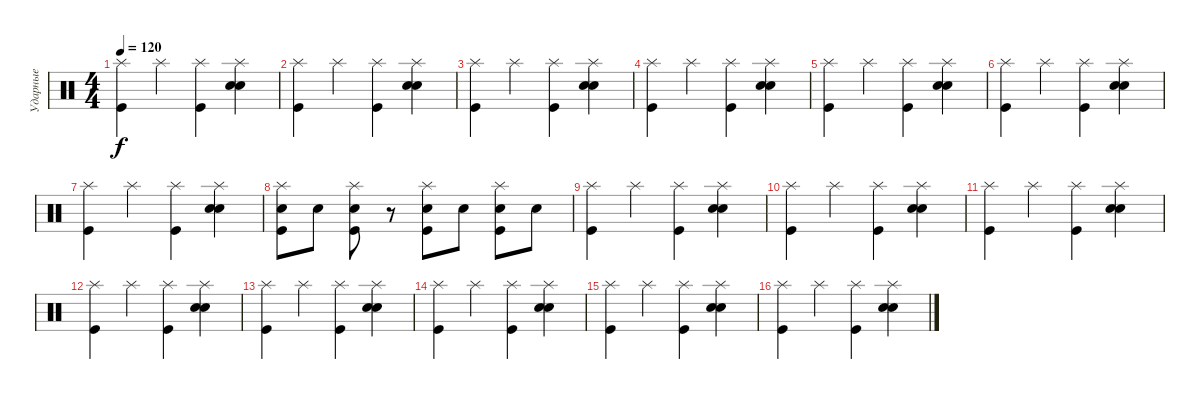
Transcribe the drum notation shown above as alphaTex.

\track ("Ударные" "Ударные") {instrument percussion}
\staff {score}
\articulation defaults
\ts (4 4)
\tempo 120
\clef neutral
\ks c
("Splash (hit)" "Kick (hit)").4{dy f} "Splash (hit)".4 ("Splash (hit)" "Kick (hit)").4 ("Splash (hit)" "Snare (hit) 2" "Snare (hit) 2").4 |
("Splash (hit)" "Kick (hit)").4 "Splash (hit)".4 ("Splash (hit)" "Kick (hit)").4 ("Splash (hit)" "Snare (hit) 2" "Snare (hit) 2").4 |
("Splash (hit)" "Kick (hit)").4 "Splash (hit)".4 ("Splash (hit)" "Kick (hit)").4 ("Splash (hit)" "Snare (hit) 2" "Snare (hit) 2").4 |
("Splash (hit)" "Kick (hit)").4 "Splash (hit)".4 ("Splash (hit)" "Kick (hit)").4 ("Splash (hit)" "Snare (hit) 2" "Snare (hit) 2").4 |
("Splash (hit)" "Kick (hit)").4 "Splash (hit)".4 ("Splash (hit)" "Kick (hit)").4 ("Splash (hit)" "Snare (hit) 2" "Snare (hit) 2").4 |
("Splash (hit)" "Kick (hit)").4 "Splash (hit)".4 ("Splash (hit)" "Kick (hit)").4 ("Splash (hit)" "Snare (hit) 2" "Snare (hit) 2").4 |
("Splash (hit)" "Kick (hit)").4 "Splash (hit)".4 ("Splash (hit)" "Kick (hit)").4 ("Splash (hit)" "Snare (hit) 2" "Snare (hit) 2").4 |
("Splash (hit)" "Snare (hit) 2" "Kick (hit)").8 "Snare (hit) 2".8 ("Splash (hit)" "Snare (hit) 2" "Kick (hit)").8 r.8 ("Splash (hit)" "Snare (hit) 2" "Kick (hit)").8 "Snare (hit) 2".8 ("Splash (hit)" "Snare (hit) 2" "Kick (hit)").8 "Electric Snare (hit)".8 |
("Splash (hit)" "Kick (hit)").4 "Splash (hit)".4 ("Splash (hit)" "Kick (hit)").4 ("Splash (hit)" "Snare (hit) 2" "Snare (hit) 2").4 |
("Splash (hit)" "Kick (hit)").4 "Splash (hit)".4 ("Splash (hit)" "Kick (hit)").4 ("Splash (hit)" "Snare (hit) 2" "Snare (hit) 2").4 |
("Splash (hit)" "Kick (hit)").4 "Splash (hit)".4 ("Splash (hit)" "Kick (hit)").4 ("Splash (hit)" "Snare (hit) 2" "Snare (hit) 2").4 |
("Splash (hit)" "Kick (hit)").4 "Splash (hit)".4 ("Splash (hit)" "Kick (hit)").4 ("Splash (hit)" "Snare (hit) 2" "Snare (hit) 2").4 |
("Splash (hit)" "Kick (hit)").4 "Splash (hit)".4 ("Splash (hit)" "Kick (hit)").4 ("Splash (hit)" "Snare (hit) 2" "Snare (hit) 2").4 |
("Splash (hit)" "Kick (hit)").4 "Splash (hit)".4 ("Splash (hit)" "Kick (hit)").4 ("Splash (hit)" "Snare (hit) 2" "Snare (hit) 2").4 |
("Splash (hit)" "Kick (hit)").4 "Splash (hit)".4 ("Splash (hit)" "Kick (hit)").4 ("Splash (hit)" "Snare (hit) 2" "Snare (hit) 2").4 |
("Splash (hit)" "Kick (hit)").4 "Splash (hit)".4 ("Splash (hit)" "Kick (hit)").4 ("Splash (hit)" "Snare (hit) 2" "Snare (hit) 2").4
